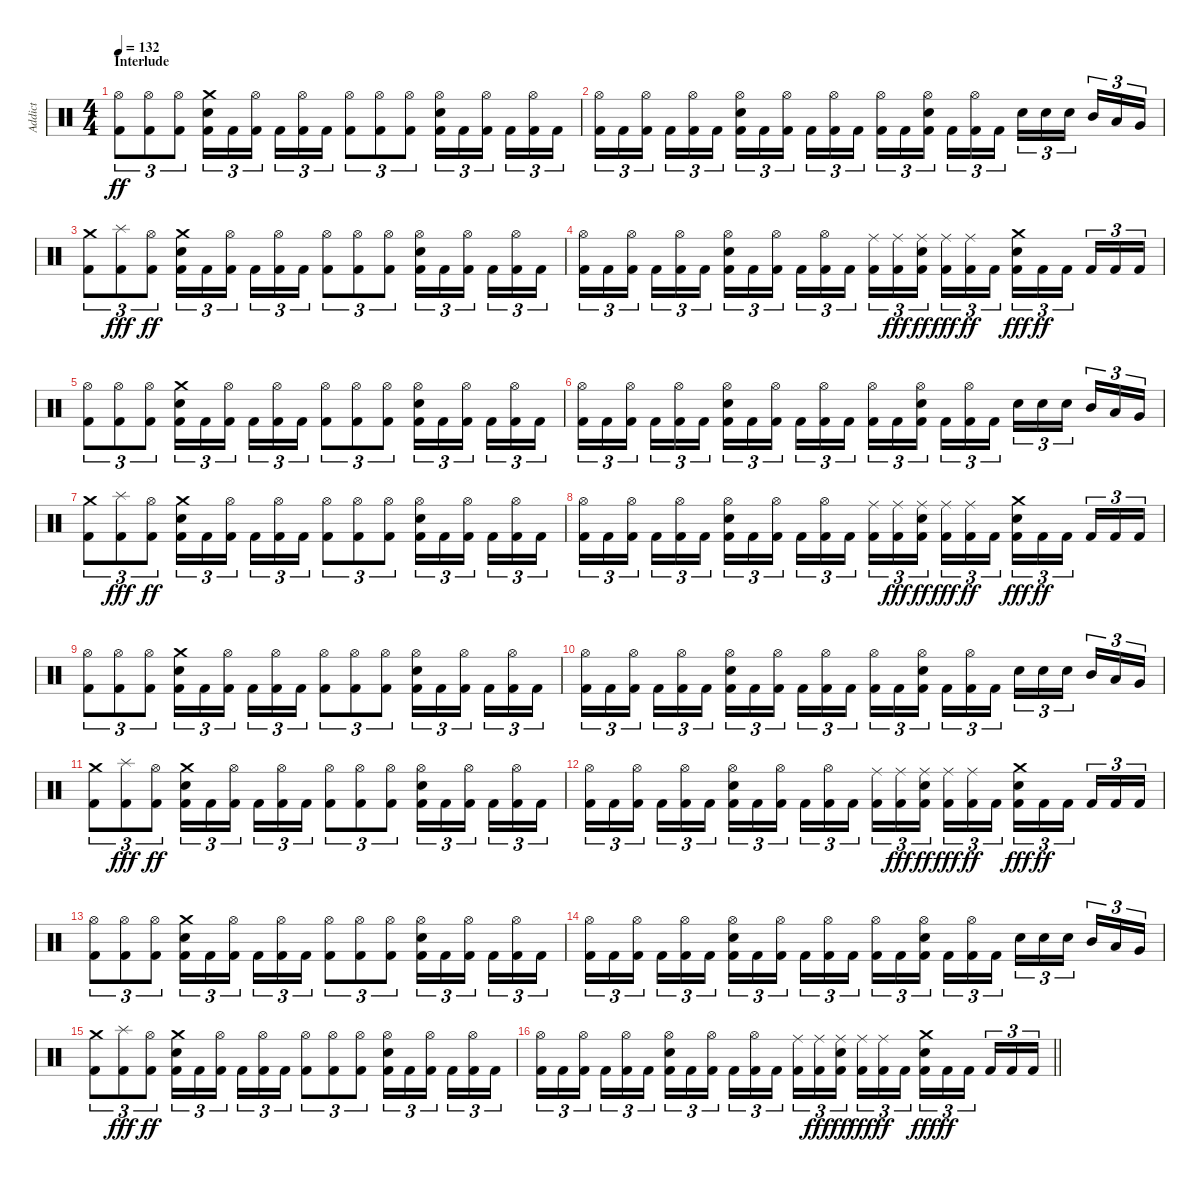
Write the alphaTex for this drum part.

\track ("Addict" "Addict") {instrument percussion}
\staff {score}
\articulation defaults
\ts (4 4)
\section ("" "Interlude")
\tempo 132
\clef neutral
\ks c
("Kick (hit) 2" "Hi-Hat (open)").8{tu (3 2) dy ff} ("Kick (hit) 2" "Hi-Hat (open)").8{tu (3 2)} ("Kick (hit) 2" "Hi-Hat (open)").8{tu (3 2)} ("Kick (hit) 2" "Snare (hit) 2" "Crash medium (hit)").16{tu (3 2)} "Kick (hit) 2".16{tu (3 2)} ("Kick (hit) 2" "Hi-Hat (open)").16{tu (3 2) beam splitsecondary} "Kick (hit) 2".16{tu (3 2)} ("Kick (hit) 2" "Hi-Hat (open)").16{tu (3 2)} "Kick (hit) 2".16{tu (3 2)} ("Kick (hit) 2" "Hi-Hat (open)").8{tu (3 2)} ("Kick (hit) 2" "Hi-Hat (open)").8{tu (3 2)} ("Kick (hit) 2" "Hi-Hat (open)").8{tu (3 2)} ("Kick (hit) 2" "Snare (hit) 2" "Hi-Hat (open)").16{tu (3 2)} "Kick (hit) 2".16{tu (3 2)} ("Kick (hit) 2" "Hi-Hat (open)").16{tu (3 2) beam splitsecondary} "Kick (hit) 2".16{tu (3 2)} ("Kick (hit) 2" "Hi-Hat (open)").16{tu (3 2)} "Kick (hit) 2".16{tu (3 2)} |
("Kick (hit) 2" "Hi-Hat (open)").16{tu (3 2)} "Kick (hit) 2".16{tu (3 2)} ("Kick (hit) 2" "Hi-Hat (open)").16{tu (3 2) beam splitsecondary} "Kick (hit) 2".16{tu (3 2)} ("Kick (hit) 2" "Hi-Hat (open)").16{tu (3 2)} "Kick (hit) 2".16{tu (3 2)} ("Kick (hit) 2" "Snare (hit) 2" "Hi-Hat (open)").16{tu (3 2)} "Kick (hit) 2".16{tu (3 2)} ("Kick (hit) 2" "Hi-Hat (open)").16{tu (3 2) beam splitsecondary} "Kick (hit) 2".16{tu (3 2)} ("Kick (hit) 2" "Hi-Hat (open)").16{tu (3 2)} "Kick (hit) 2".16{tu (3 2)} ("Kick (hit) 2" "Hi-Hat (open)").16{tu (3 2)} "Kick (hit) 2".16{tu (3 2)} ("Kick (hit) 2" "Snare (hit) 2" "Hi-Hat (open)").16{tu (3 2) beam splitsecondary} "Kick (hit) 2".16{tu (3 2)} ("Kick (hit) 2" "Hi-Hat (open)").16{tu (3 2)} "Kick (hit) 2".16{tu (3 2)} "Snare (hit) 2".16{tu (3 2)} "Snare (hit) 2".16{tu (3 2)} "Snare (hit) 2".16{tu (3 2) beam splitsecondary} "Mid Tom (hit)".16{tu (3 2)} "Low Tom (hit)".16{tu (3 2)} "Very Low Tom (hit)".16{tu (3 2)} |
("Kick (hit) 2" "Crash medium (hit)").8{tu (3 2)} ("Kick (hit) 2" "Splash (hit)").8{tu (3 2) dy fff} ("Kick (hit) 2" "Hi-Hat (open)").8{tu (3 2) dy ff} ("Kick (hit) 2" "Snare (hit) 2" "Crash medium (hit)").16{tu (3 2)} "Kick (hit) 2".16{tu (3 2)} ("Kick (hit) 2" "Hi-Hat (open)").16{tu (3 2) beam splitsecondary} "Kick (hit) 2".16{tu (3 2)} ("Kick (hit) 2" "Hi-Hat (open)").16{tu (3 2)} "Kick (hit) 2".16{tu (3 2)} ("Kick (hit) 2" "Hi-Hat (open)").8{tu (3 2)} ("Kick (hit) 2" "Hi-Hat (open)").8{tu (3 2)} ("Kick (hit) 2" "Hi-Hat (open)").8{tu (3 2)} ("Kick (hit) 2" "Snare (hit) 2" "Hi-Hat (open)").16{tu (3 2)} "Kick (hit) 2".16{tu (3 2)} ("Kick (hit) 2" "Hi-Hat (open)").16{tu (3 2) beam splitsecondary} "Kick (hit) 2".16{tu (3 2)} ("Kick (hit) 2" "Hi-Hat (open)").16{tu (3 2)} "Kick (hit) 2".16{tu (3 2)} |
("Kick (hit) 2" "Hi-Hat (open)").16{tu (3 2)} "Kick (hit) 2".16{tu (3 2)} ("Kick (hit) 2" "Hi-Hat (open)").16{tu (3 2) beam splitsecondary} "Kick (hit) 2".16{tu (3 2)} ("Kick (hit) 2" "Hi-Hat (open)").16{tu (3 2)} "Kick (hit) 2".16{tu (3 2)} ("Kick (hit) 2" "Snare (hit) 2" "Hi-Hat (open)").16{tu (3 2)} "Kick (hit) 2".16{tu (3 2)} ("Kick (hit) 2" "Hi-Hat (open)").16{tu (3 2) beam splitsecondary} "Kick (hit) 2".16{tu (3 2)} ("Kick (hit) 2" "Hi-Hat (open)").16{tu (3 2)} "Kick (hit) 2".16{tu (3 2)} ("Kick (hit) 2" "Ride (middle)").16{tu (3 2)} ("Kick (hit) 2" "Ride (middle)").16{tu (3 2) dy fff} ("Kick (hit) 2" "Snare (hit) 2" "Ride (middle)").16{tu (3 2) dy ff beam splitsecondary} ("Kick (hit) 2" "Ride (middle)").16{tu (3 2) dy fff} ("Kick (hit) 2" "Ride (middle)").16{tu (3 2) dy ff} "Kick (hit) 2".16{tu (3 2)} ("Kick (hit) 2" "Snare (hit) 2" "Crash medium (hit)").16{tu (3 2) dy fff} "Kick (hit) 2".16{tu (3 2) dy ff} "Kick (hit) 2".16{tu (3 2) beam splitsecondary} "Kick (hit) 2".16{tu (3 2)} "Kick (hit) 2".16{tu (3 2)} "Kick (hit) 2".16{tu (3 2)} |
("Kick (hit) 2" "Hi-Hat (open)").8{tu (3 2)} ("Kick (hit) 2" "Hi-Hat (open)").8{tu (3 2)} ("Kick (hit) 2" "Hi-Hat (open)").8{tu (3 2)} ("Kick (hit) 2" "Snare (hit) 2" "Crash medium (hit)").16{tu (3 2)} "Kick (hit) 2".16{tu (3 2)} ("Kick (hit) 2" "Hi-Hat (open)").16{tu (3 2) beam splitsecondary} "Kick (hit) 2".16{tu (3 2)} ("Kick (hit) 2" "Hi-Hat (open)").16{tu (3 2)} "Kick (hit) 2".16{tu (3 2)} ("Kick (hit) 2" "Hi-Hat (open)").8{tu (3 2)} ("Kick (hit) 2" "Hi-Hat (open)").8{tu (3 2)} ("Kick (hit) 2" "Hi-Hat (open)").8{tu (3 2)} ("Kick (hit) 2" "Snare (hit) 2" "Hi-Hat (open)").16{tu (3 2)} "Kick (hit) 2".16{tu (3 2)} ("Kick (hit) 2" "Hi-Hat (open)").16{tu (3 2) beam splitsecondary} "Kick (hit) 2".16{tu (3 2)} ("Kick (hit) 2" "Hi-Hat (open)").16{tu (3 2)} "Kick (hit) 2".16{tu (3 2)} |
("Kick (hit) 2" "Hi-Hat (open)").16{tu (3 2)} "Kick (hit) 2".16{tu (3 2)} ("Kick (hit) 2" "Hi-Hat (open)").16{tu (3 2) beam splitsecondary} "Kick (hit) 2".16{tu (3 2)} ("Kick (hit) 2" "Hi-Hat (open)").16{tu (3 2)} "Kick (hit) 2".16{tu (3 2)} ("Kick (hit) 2" "Snare (hit) 2" "Hi-Hat (open)").16{tu (3 2)} "Kick (hit) 2".16{tu (3 2)} ("Kick (hit) 2" "Hi-Hat (open)").16{tu (3 2) beam splitsecondary} "Kick (hit) 2".16{tu (3 2)} ("Kick (hit) 2" "Hi-Hat (open)").16{tu (3 2)} "Kick (hit) 2".16{tu (3 2)} ("Kick (hit) 2" "Hi-Hat (open)").16{tu (3 2)} "Kick (hit) 2".16{tu (3 2)} ("Kick (hit) 2" "Snare (hit) 2" "Hi-Hat (open)").16{tu (3 2) beam splitsecondary} "Kick (hit) 2".16{tu (3 2)} ("Kick (hit) 2" "Hi-Hat (open)").16{tu (3 2)} "Kick (hit) 2".16{tu (3 2)} "Snare (hit) 2".16{tu (3 2)} "Snare (hit) 2".16{tu (3 2)} "Snare (hit) 2".16{tu (3 2) beam splitsecondary} "Mid Tom (hit)".16{tu (3 2)} "Low Tom (hit)".16{tu (3 2)} "Very Low Tom (hit)".16{tu (3 2)} |
("Kick (hit) 2" "Crash medium (hit)").8{tu (3 2)} ("Kick (hit) 2" "Splash (hit)").8{tu (3 2) dy fff} ("Kick (hit) 2" "Hi-Hat (open)").8{tu (3 2) dy ff} ("Kick (hit) 2" "Snare (hit) 2" "Crash medium (hit)").16{tu (3 2)} "Kick (hit) 2".16{tu (3 2)} ("Kick (hit) 2" "Hi-Hat (open)").16{tu (3 2) beam splitsecondary} "Kick (hit) 2".16{tu (3 2)} ("Kick (hit) 2" "Hi-Hat (open)").16{tu (3 2)} "Kick (hit) 2".16{tu (3 2)} ("Kick (hit) 2" "Hi-Hat (open)").8{tu (3 2)} ("Kick (hit) 2" "Hi-Hat (open)").8{tu (3 2)} ("Kick (hit) 2" "Hi-Hat (open)").8{tu (3 2)} ("Kick (hit) 2" "Snare (hit) 2" "Hi-Hat (open)").16{tu (3 2)} "Kick (hit) 2".16{tu (3 2)} ("Kick (hit) 2" "Hi-Hat (open)").16{tu (3 2) beam splitsecondary} "Kick (hit) 2".16{tu (3 2)} ("Kick (hit) 2" "Hi-Hat (open)").16{tu (3 2)} "Kick (hit) 2".16{tu (3 2)} |
("Kick (hit) 2" "Hi-Hat (open)").16{tu (3 2)} "Kick (hit) 2".16{tu (3 2)} ("Kick (hit) 2" "Hi-Hat (open)").16{tu (3 2) beam splitsecondary} "Kick (hit) 2".16{tu (3 2)} ("Kick (hit) 2" "Hi-Hat (open)").16{tu (3 2)} "Kick (hit) 2".16{tu (3 2)} ("Kick (hit) 2" "Snare (hit) 2" "Hi-Hat (open)").16{tu (3 2)} "Kick (hit) 2".16{tu (3 2)} ("Kick (hit) 2" "Hi-Hat (open)").16{tu (3 2) beam splitsecondary} "Kick (hit) 2".16{tu (3 2)} ("Kick (hit) 2" "Hi-Hat (open)").16{tu (3 2)} "Kick (hit) 2".16{tu (3 2)} ("Kick (hit) 2" "Ride (middle)").16{tu (3 2)} ("Kick (hit) 2" "Ride (middle)").16{tu (3 2) dy fff} ("Kick (hit) 2" "Snare (hit) 2" "Ride (middle)").16{tu (3 2) dy ff beam splitsecondary} ("Kick (hit) 2" "Ride (middle)").16{tu (3 2) dy fff} ("Kick (hit) 2" "Ride (middle)").16{tu (3 2) dy ff} "Kick (hit) 2".16{tu (3 2)} ("Kick (hit) 2" "Snare (hit) 2" "Crash medium (hit)").16{tu (3 2) dy fff} "Kick (hit) 2".16{tu (3 2) dy ff} "Kick (hit) 2".16{tu (3 2) beam splitsecondary} "Kick (hit) 2".16{tu (3 2)} "Kick (hit) 2".16{tu (3 2)} "Kick (hit) 2".16{tu (3 2)} |
("Kick (hit) 2" "Hi-Hat (open)").8{tu (3 2)} ("Kick (hit) 2" "Hi-Hat (open)").8{tu (3 2)} ("Kick (hit) 2" "Hi-Hat (open)").8{tu (3 2)} ("Kick (hit) 2" "Snare (hit) 2" "Crash medium (hit)").16{tu (3 2)} "Kick (hit) 2".16{tu (3 2)} ("Kick (hit) 2" "Hi-Hat (open)").16{tu (3 2) beam splitsecondary} "Kick (hit) 2".16{tu (3 2)} ("Kick (hit) 2" "Hi-Hat (open)").16{tu (3 2)} "Kick (hit) 2".16{tu (3 2)} ("Kick (hit) 2" "Hi-Hat (open)").8{tu (3 2)} ("Kick (hit) 2" "Hi-Hat (open)").8{tu (3 2)} ("Kick (hit) 2" "Hi-Hat (open)").8{tu (3 2)} ("Kick (hit) 2" "Snare (hit) 2" "Hi-Hat (open)").16{tu (3 2)} "Kick (hit) 2".16{tu (3 2)} ("Kick (hit) 2" "Hi-Hat (open)").16{tu (3 2) beam splitsecondary} "Kick (hit) 2".16{tu (3 2)} ("Kick (hit) 2" "Hi-Hat (open)").16{tu (3 2)} "Kick (hit) 2".16{tu (3 2)} |
("Kick (hit) 2" "Hi-Hat (open)").16{tu (3 2)} "Kick (hit) 2".16{tu (3 2)} ("Kick (hit) 2" "Hi-Hat (open)").16{tu (3 2) beam splitsecondary} "Kick (hit) 2".16{tu (3 2)} ("Kick (hit) 2" "Hi-Hat (open)").16{tu (3 2)} "Kick (hit) 2".16{tu (3 2)} ("Kick (hit) 2" "Snare (hit) 2" "Hi-Hat (open)").16{tu (3 2)} "Kick (hit) 2".16{tu (3 2)} ("Kick (hit) 2" "Hi-Hat (open)").16{tu (3 2) beam splitsecondary} "Kick (hit) 2".16{tu (3 2)} ("Kick (hit) 2" "Hi-Hat (open)").16{tu (3 2)} "Kick (hit) 2".16{tu (3 2)} ("Kick (hit) 2" "Hi-Hat (open)").16{tu (3 2)} "Kick (hit) 2".16{tu (3 2)} ("Kick (hit) 2" "Snare (hit) 2" "Hi-Hat (open)").16{tu (3 2) beam splitsecondary} "Kick (hit) 2".16{tu (3 2)} ("Kick (hit) 2" "Hi-Hat (open)").16{tu (3 2)} "Kick (hit) 2".16{tu (3 2)} "Snare (hit) 2".16{tu (3 2)} "Snare (hit) 2".16{tu (3 2)} "Snare (hit) 2".16{tu (3 2) beam splitsecondary} "Mid Tom (hit)".16{tu (3 2)} "Low Tom (hit)".16{tu (3 2)} "Very Low Tom (hit)".16{tu (3 2)} |
("Kick (hit) 2" "Crash medium (hit)").8{tu (3 2)} ("Kick (hit) 2" "Splash (hit)").8{tu (3 2) dy fff} ("Kick (hit) 2" "Hi-Hat (open)").8{tu (3 2) dy ff} ("Kick (hit) 2" "Snare (hit) 2" "Crash medium (hit)").16{tu (3 2)} "Kick (hit) 2".16{tu (3 2)} ("Kick (hit) 2" "Hi-Hat (open)").16{tu (3 2) beam splitsecondary} "Kick (hit) 2".16{tu (3 2)} ("Kick (hit) 2" "Hi-Hat (open)").16{tu (3 2)} "Kick (hit) 2".16{tu (3 2)} ("Kick (hit) 2" "Hi-Hat (open)").8{tu (3 2)} ("Kick (hit) 2" "Hi-Hat (open)").8{tu (3 2)} ("Kick (hit) 2" "Hi-Hat (open)").8{tu (3 2)} ("Kick (hit) 2" "Snare (hit) 2" "Hi-Hat (open)").16{tu (3 2)} "Kick (hit) 2".16{tu (3 2)} ("Kick (hit) 2" "Hi-Hat (open)").16{tu (3 2) beam splitsecondary} "Kick (hit) 2".16{tu (3 2)} ("Kick (hit) 2" "Hi-Hat (open)").16{tu (3 2)} "Kick (hit) 2".16{tu (3 2)} |
("Kick (hit) 2" "Hi-Hat (open)").16{tu (3 2)} "Kick (hit) 2".16{tu (3 2)} ("Kick (hit) 2" "Hi-Hat (open)").16{tu (3 2) beam splitsecondary} "Kick (hit) 2".16{tu (3 2)} ("Kick (hit) 2" "Hi-Hat (open)").16{tu (3 2)} "Kick (hit) 2".16{tu (3 2)} ("Kick (hit) 2" "Snare (hit) 2" "Hi-Hat (open)").16{tu (3 2)} "Kick (hit) 2".16{tu (3 2)} ("Kick (hit) 2" "Hi-Hat (open)").16{tu (3 2) beam splitsecondary} "Kick (hit) 2".16{tu (3 2)} ("Kick (hit) 2" "Hi-Hat (open)").16{tu (3 2)} "Kick (hit) 2".16{tu (3 2)} ("Kick (hit) 2" "Ride (middle)").16{tu (3 2)} ("Kick (hit) 2" "Ride (middle)").16{tu (3 2) dy fff} ("Kick (hit) 2" "Snare (hit) 2" "Ride (middle)").16{tu (3 2) dy ff beam splitsecondary} ("Kick (hit) 2" "Ride (middle)").16{tu (3 2) dy fff} ("Kick (hit) 2" "Ride (middle)").16{tu (3 2) dy ff} "Kick (hit) 2".16{tu (3 2)} ("Kick (hit) 2" "Snare (hit) 2" "Crash medium (hit)").16{tu (3 2) dy fff} "Kick (hit) 2".16{tu (3 2) dy ff} "Kick (hit) 2".16{tu (3 2) beam splitsecondary} "Kick (hit) 2".16{tu (3 2)} "Kick (hit) 2".16{tu (3 2)} "Kick (hit) 2".16{tu (3 2)} |
("Kick (hit) 2" "Hi-Hat (open)").8{tu (3 2)} ("Kick (hit) 2" "Hi-Hat (open)").8{tu (3 2)} ("Kick (hit) 2" "Hi-Hat (open)").8{tu (3 2)} ("Kick (hit) 2" "Snare (hit) 2" "Crash medium (hit)").16{tu (3 2)} "Kick (hit) 2".16{tu (3 2)} ("Kick (hit) 2" "Hi-Hat (open)").16{tu (3 2) beam splitsecondary} "Kick (hit) 2".16{tu (3 2)} ("Kick (hit) 2" "Hi-Hat (open)").16{tu (3 2)} "Kick (hit) 2".16{tu (3 2)} ("Kick (hit) 2" "Hi-Hat (open)").8{tu (3 2)} ("Kick (hit) 2" "Hi-Hat (open)").8{tu (3 2)} ("Kick (hit) 2" "Hi-Hat (open)").8{tu (3 2)} ("Kick (hit) 2" "Snare (hit) 2" "Hi-Hat (open)").16{tu (3 2)} "Kick (hit) 2".16{tu (3 2)} ("Kick (hit) 2" "Hi-Hat (open)").16{tu (3 2) beam splitsecondary} "Kick (hit) 2".16{tu (3 2)} ("Kick (hit) 2" "Hi-Hat (open)").16{tu (3 2)} "Kick (hit) 2".16{tu (3 2)} |
("Kick (hit) 2" "Hi-Hat (open)").16{tu (3 2)} "Kick (hit) 2".16{tu (3 2)} ("Kick (hit) 2" "Hi-Hat (open)").16{tu (3 2) beam splitsecondary} "Kick (hit) 2".16{tu (3 2)} ("Kick (hit) 2" "Hi-Hat (open)").16{tu (3 2)} "Kick (hit) 2".16{tu (3 2)} ("Kick (hit) 2" "Snare (hit) 2" "Hi-Hat (open)").16{tu (3 2)} "Kick (hit) 2".16{tu (3 2)} ("Kick (hit) 2" "Hi-Hat (open)").16{tu (3 2) beam splitsecondary} "Kick (hit) 2".16{tu (3 2)} ("Kick (hit) 2" "Hi-Hat (open)").16{tu (3 2)} "Kick (hit) 2".16{tu (3 2)} ("Kick (hit) 2" "Hi-Hat (open)").16{tu (3 2)} "Kick (hit) 2".16{tu (3 2)} ("Kick (hit) 2" "Snare (hit) 2" "Hi-Hat (open)").16{tu (3 2) beam splitsecondary} "Kick (hit) 2".16{tu (3 2)} ("Kick (hit) 2" "Hi-Hat (open)").16{tu (3 2)} "Kick (hit) 2".16{tu (3 2)} "Snare (hit) 2".16{tu (3 2)} "Snare (hit) 2".16{tu (3 2)} "Snare (hit) 2".16{tu (3 2) beam splitsecondary} "Mid Tom (hit)".16{tu (3 2)} "Low Tom (hit)".16{tu (3 2)} "Very Low Tom (hit)".16{tu (3 2)} |
("Kick (hit) 2" "Crash medium (hit)").8{tu (3 2)} ("Kick (hit) 2" "Splash (hit)").8{tu (3 2) dy fff} ("Kick (hit) 2" "Hi-Hat (open)").8{tu (3 2) dy ff} ("Kick (hit) 2" "Snare (hit) 2" "Crash medium (hit)").16{tu (3 2)} "Kick (hit) 2".16{tu (3 2)} ("Kick (hit) 2" "Hi-Hat (open)").16{tu (3 2) beam splitsecondary} "Kick (hit) 2".16{tu (3 2)} ("Kick (hit) 2" "Hi-Hat (open)").16{tu (3 2)} "Kick (hit) 2".16{tu (3 2)} ("Kick (hit) 2" "Hi-Hat (open)").8{tu (3 2)} ("Kick (hit) 2" "Hi-Hat (open)").8{tu (3 2)} ("Kick (hit) 2" "Hi-Hat (open)").8{tu (3 2)} ("Kick (hit) 2" "Snare (hit) 2" "Hi-Hat (open)").16{tu (3 2)} "Kick (hit) 2".16{tu (3 2)} ("Kick (hit) 2" "Hi-Hat (open)").16{tu (3 2) beam splitsecondary} "Kick (hit) 2".16{tu (3 2)} ("Kick (hit) 2" "Hi-Hat (open)").16{tu (3 2)} "Kick (hit) 2".16{tu (3 2)} |
\barLineRight lightlight
("Kick (hit) 2" "Hi-Hat (open)").16{tu (3 2)} "Kick (hit) 2".16{tu (3 2)} ("Kick (hit) 2" "Hi-Hat (open)").16{tu (3 2) beam splitsecondary} "Kick (hit) 2".16{tu (3 2)} ("Kick (hit) 2" "Hi-Hat (open)").16{tu (3 2)} "Kick (hit) 2".16{tu (3 2)} ("Kick (hit) 2" "Snare (hit) 2" "Hi-Hat (open)").16{tu (3 2)} "Kick (hit) 2".16{tu (3 2)} ("Kick (hit) 2" "Hi-Hat (open)").16{tu (3 2) beam splitsecondary} "Kick (hit) 2".16{tu (3 2)} ("Kick (hit) 2" "Hi-Hat (open)").16{tu (3 2)} "Kick (hit) 2".16{tu (3 2)} ("Kick (hit) 2" "Ride (middle)").16{tu (3 2)} ("Kick (hit) 2" "Ride (middle)").16{tu (3 2) dy fff} ("Kick (hit) 2" "Snare (hit) 2" "Ride (middle)").16{tu (3 2) dy ff beam splitsecondary} ("Kick (hit) 2" "Ride (middle)").16{tu (3 2) dy fff} ("Kick (hit) 2" "Ride (middle)").16{tu (3 2) dy ff} "Kick (hit) 2".16{tu (3 2)} ("Kick (hit) 2" "Snare (hit) 2" "Crash medium (hit)").16{tu (3 2) dy fff} "Kick (hit) 2".16{tu (3 2) dy ff} "Kick (hit) 2".16{tu (3 2) beam splitsecondary} "Kick (hit) 2".16{tu (3 2)} "Kick (hit) 2".16{tu (3 2)} "Kick (hit) 2".16{tu (3 2)}
